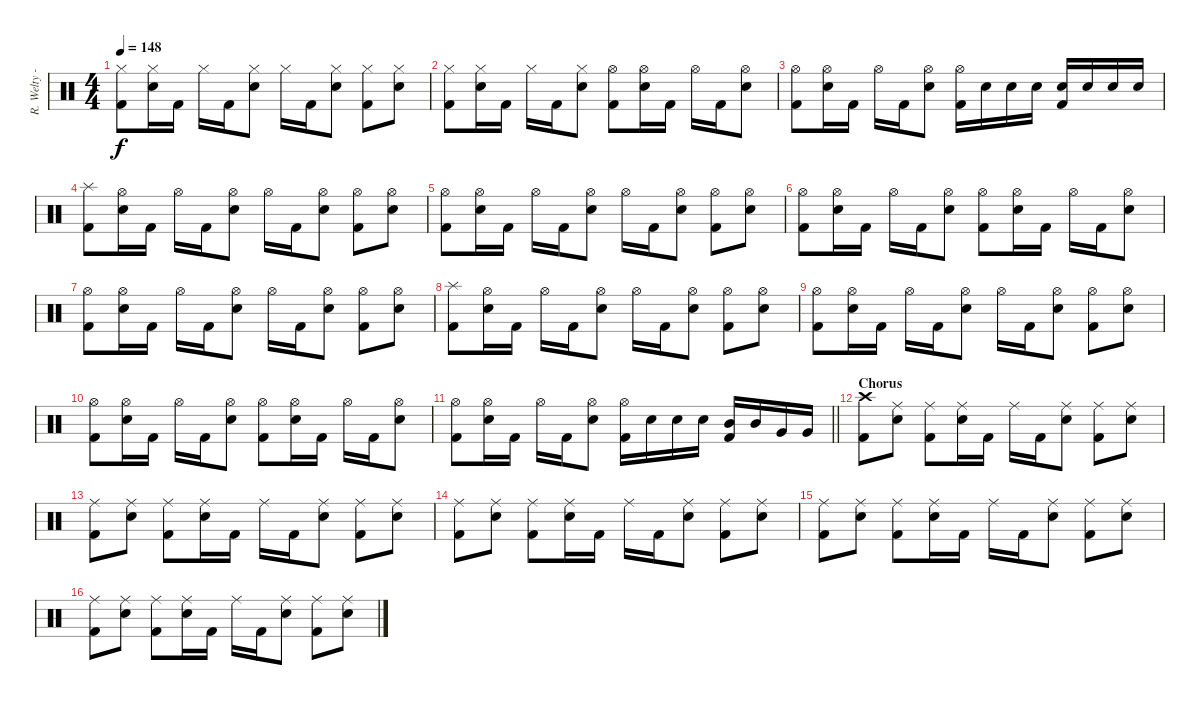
\track ("R. Welty - Drums" "R. Welty -") {instrument percussion}
\staff {score}
\articulation defaults
\ts (4 4)
\tempo 148
\clef neutral
\ks c
("Hi-Hat (closed)" "Kick (hit) 2").8{dy f} ("Hi-Hat (closed)" "Snare (hit) 2").16 "Kick (hit) 2".16 "Hi-Hat (closed)".16 "Kick (hit) 2".16 ("Hi-Hat (closed)" "Snare (hit) 2").8 "Hi-Hat (closed)".16 "Kick (hit) 2".16 ("Hi-Hat (closed)" "Snare (hit) 2").8 ("Hi-Hat (closed)" "Kick (hit) 2").8 ("Hi-Hat (closed)" "Snare (hit) 2").8 |
("Hi-Hat (closed)" "Kick (hit) 2").8 ("Hi-Hat (closed)" "Snare (hit) 2").16 "Kick (hit) 2".16 "Hi-Hat (closed)".16 "Kick (hit) 2".16 ("Hi-Hat (closed)" "Snare (hit) 2").8 ("Hi-Hat (open)" "Kick (hit) 2").8 ("Hi-Hat (open)" "Snare (hit) 2").16 "Kick (hit) 2".16 "Hi-Hat (open)".16 "Kick (hit) 2".16 ("Hi-Hat (open)" "Snare (hit) 2").8 |
("Hi-Hat (open)" "Kick (hit) 2").8 ("Hi-Hat (open)" "Snare (hit) 2").16 "Kick (hit) 2".16 "Hi-Hat (open)".16 "Kick (hit) 2".16 ("Hi-Hat (open)" "Snare (hit) 2").8 ("Hi-Hat (open)" "Kick (hit) 2").16 "Snare (hit) 2".16 "Snare (hit) 2".16 "Snare (hit) 2".16 ("Snare (hit) 2" "Kick (hit) 2").16 "Snare (hit) 2".16 "Snare (hit) 2".16 "Snare (hit) 2".16 |
("Splash (hit)" "Kick (hit) 2").8 ("Hi-Hat (open)" "Snare (hit) 2").16 "Kick (hit) 2".16 "Hi-Hat (open)".16 "Kick (hit) 2".16 ("Hi-Hat (open)" "Snare (hit) 2").8 "Hi-Hat (open)".16 "Kick (hit) 2".16 ("Hi-Hat (open)" "Snare (hit) 2").8 ("Hi-Hat (open)" "Kick (hit) 2").8 ("Hi-Hat (open)" "Snare (hit) 2").8 |
("Hi-Hat (open)" "Kick (hit) 2").8 ("Hi-Hat (open)" "Snare (hit) 2").16 "Kick (hit) 2".16 "Hi-Hat (open)".16 "Kick (hit) 2".16 ("Hi-Hat (open)" "Snare (hit) 2").8 "Hi-Hat (open)".16 "Kick (hit) 2".16 ("Hi-Hat (open)" "Snare (hit) 2").8 ("Hi-Hat (open)" "Kick (hit) 2").8 ("Hi-Hat (open)" "Snare (hit) 2").8 |
("Hi-Hat (open)" "Kick (hit) 2").8 ("Hi-Hat (open)" "Snare (hit) 2").16 "Kick (hit) 2".16 "Hi-Hat (open)".16 "Kick (hit) 2".16 ("Hi-Hat (open)" "Snare (hit) 2").8 ("Hi-Hat (open)" "Kick (hit) 2").8 ("Hi-Hat (open)" "Snare (hit) 2").16 "Kick (hit) 2".16 "Hi-Hat (open)".16 "Kick (hit) 2".16 ("Hi-Hat (open)" "Snare (hit) 2").8 |
("Hi-Hat (open)" "Kick (hit) 2").8 ("Hi-Hat (open)" "Snare (hit) 2").16 "Kick (hit) 2".16 "Hi-Hat (open)".16 "Kick (hit) 2".16 ("Hi-Hat (open)" "Snare (hit) 2").8 "Hi-Hat (open)".16 "Kick (hit) 2".16 ("Hi-Hat (open)" "Snare (hit) 2").8 ("Hi-Hat (open)" "Kick (hit) 2").8 ("Hi-Hat (open)" "Snare (hit) 2").8 |
("Splash (hit)" "Kick (hit) 2").8 ("Hi-Hat (open)" "Snare (hit) 2").16 "Kick (hit) 2".16 "Hi-Hat (open)".16 "Kick (hit) 2".16 ("Hi-Hat (open)" "Snare (hit) 2").8 "Hi-Hat (open)".16 "Kick (hit) 2".16 ("Hi-Hat (open)" "Snare (hit) 2").8 ("Hi-Hat (open)" "Kick (hit) 2").8 ("Hi-Hat (open)" "Snare (hit) 2").8 |
("Hi-Hat (open)" "Kick (hit) 2").8 ("Hi-Hat (open)" "Snare (hit) 2").16 "Kick (hit) 2".16 "Hi-Hat (open)".16 "Kick (hit) 2".16 ("Hi-Hat (open)" "Snare (hit) 2").8 "Hi-Hat (open)".16 "Kick (hit) 2".16 ("Hi-Hat (open)" "Snare (hit) 2").8 ("Hi-Hat (open)" "Kick (hit) 2").8 ("Hi-Hat (open)" "Snare (hit) 2").8 |
("Hi-Hat (open)" "Kick (hit) 2").8 ("Hi-Hat (open)" "Snare (hit) 2").16 "Kick (hit) 2".16 "Hi-Hat (open)".16 "Kick (hit) 2".16 ("Hi-Hat (open)" "Snare (hit) 2").8 ("Hi-Hat (open)" "Kick (hit) 2").8 ("Hi-Hat (open)" "Snare (hit) 2").16 "Kick (hit) 2".16 "Hi-Hat (open)".16 "Kick (hit) 2".16 ("Hi-Hat (open)" "Snare (hit) 2").8 |
\barLineRight lightlight
("Hi-Hat (open)" "Kick (hit) 2").8 ("Hi-Hat (open)" "Snare (hit) 2").16 "Kick (hit) 2".16 "Hi-Hat (open)".16 "Kick (hit) 2".16 ("Hi-Hat (open)" "Snare (hit) 2").8 ("Hi-Hat (open)" "Kick (hit) 2").16 "Snare (hit) 2".16 "Snare (hit) 2".16 "Snare (hit) 2".16 ("Mid Tom (hit)" "Kick (hit) 2").16 "Mid Tom (hit)".16 "Very Low Tom (hit)".16 "Very Low Tom (hit)".16 |
\section ("" "Chorus")
("Crash high (hit)" "Kick (hit) 2").8 ("Ride (middle)" "Snare (hit) 2").8 ("Ride (middle)" "Kick (hit) 2").8 ("Ride (middle)" "Snare (hit) 2").16 "Kick (hit) 2".16 "Ride (middle)".16 "Kick (hit) 2".16 ("Ride (middle)" "Snare (hit) 2").8 ("Ride (middle)" "Kick (hit) 2").8 ("Ride (middle)" "Snare (hit) 2").8 |
("Ride (middle)" "Kick (hit) 2").8 ("Ride (middle)" "Snare (hit) 2").8 ("Ride (middle)" "Kick (hit) 2").8 ("Ride (middle)" "Snare (hit) 2").16 "Kick (hit) 2".16 "Ride (middle)".16 "Kick (hit) 2".16 ("Ride (middle)" "Snare (hit) 2").8 ("Ride (middle)" "Kick (hit) 2").8 ("Ride (middle)" "Snare (hit) 2").8 |
("Ride (middle)" "Kick (hit) 2").8 ("Ride (middle)" "Snare (hit) 2").8 ("Ride (middle)" "Kick (hit) 2").8 ("Ride (middle)" "Snare (hit) 2").16 "Kick (hit) 2".16 "Ride (middle)".16 "Kick (hit) 2".16 ("Ride (middle)" "Snare (hit) 2").8 ("Ride (middle)" "Kick (hit) 2").8 ("Ride (middle)" "Snare (hit) 2").8 |
("Ride (middle)" "Kick (hit) 2").8 ("Ride (middle)" "Snare (hit) 2").8 ("Ride (middle)" "Kick (hit) 2").8 ("Ride (middle)" "Snare (hit) 2").16 "Kick (hit) 2".16 "Ride (middle)".16 "Kick (hit) 2".16 ("Ride (middle)" "Snare (hit) 2").8 ("Ride (middle)" "Kick (hit) 2").8 ("Ride (middle)" "Snare (hit) 2").8 |
("Ride (middle)" "Kick (hit) 2").8 ("Ride (middle)" "Snare (hit) 2").8 ("Ride (middle)" "Kick (hit) 2").8 ("Ride (middle)" "Snare (hit) 2").16 "Kick (hit) 2".16 "Ride (middle)".16 "Kick (hit) 2".16 ("Ride (middle)" "Snare (hit) 2").8 ("Ride (middle)" "Kick (hit) 2").8 ("Ride (middle)" "Snare (hit) 2").8
